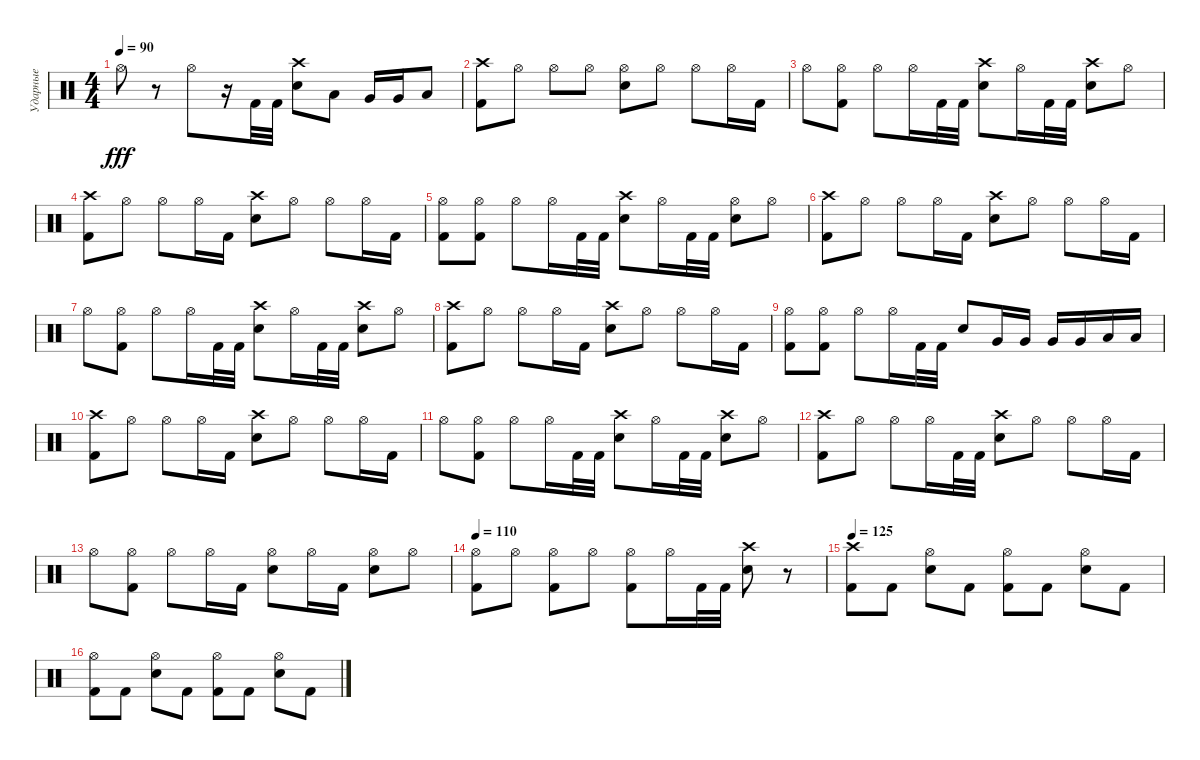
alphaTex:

\track ("Ударные" "Ударные") {instrument percussion}
\staff {score}
\articulation defaults
\ts (4 4)
\tempo 90
\clef neutral
\ks c "Hi-Hat (open)".8{dy fff}
r.8 "Hi-Hat (open)".8 r.16 "Kick (hit) 2".32 "Kick (hit) 2".32 ("Crash high (hit)" "Electric Snare (hit)").8 "Low Tom (hit)".8 "Very Low Tom (hit)".16 "Very Low Tom (hit)".16 "Low Floor Tom (hit)".8 |
("Crash high (hit)" "Kick (hit) 2").8 "Hi-Hat (open)".8 "Hi-Hat (open)".8 "Hi-Hat (open)".8 ("Hi-Hat (open)" "Electric Snare (hit)").8 "Hi-Hat (open)".8 "Hi-Hat (open)".8 "Hi-Hat (open)".16 "Kick (hit) 2".16 |
"Hi-Hat (open)".8 ("Hi-Hat (open)" "Kick (hit) 2").8 "Hi-Hat (open)".8 "Hi-Hat (open)".16 "Kick (hit) 2".32 "Kick (hit) 2".32 ("Crash high (hit)" "Electric Snare (hit)").8 "Hi-Hat (open)".16 "Kick (hit) 2".32 "Kick (hit) 2".32 ("Crash high (hit)" "Electric Snare (hit)").8 "Hi-Hat (open)".8 |
("Crash high (hit)" "Kick (hit) 2").8 "Hi-Hat (open)".8 "Hi-Hat (open)".8 "Hi-Hat (open)".16 "Kick (hit) 2".16 ("Crash high (hit)" "Electric Snare (hit)").8 "Hi-Hat (open)".8 "Hi-Hat (open)".8 "Hi-Hat (open)".16 "Kick (hit) 2".16 |
("Hi-Hat (open)" "Kick (hit) 2").8 ("Hi-Hat (open)" "Kick (hit) 2").8 "Hi-Hat (open)".8 "Hi-Hat (open)".16 "Kick (hit) 2".32 "Kick (hit) 2".32 ("Crash high (hit)" "Electric Snare (hit)").8 "Hi-Hat (open)".16 "Kick (hit) 2".32 "Kick (hit) 2".32 ("Hi-Hat (open)" "Electric Snare (hit)").8 "Hi-Hat (open)".8 |
("Crash high (hit)" "Kick (hit) 2").8 "Hi-Hat (open)".8 "Hi-Hat (open)".8 "Hi-Hat (open)".16 "Kick (hit) 2".16 ("Crash high (hit)" "Electric Snare (hit)").8 "Hi-Hat (open)".8 "Hi-Hat (open)".8 "Hi-Hat (open)".16 "Kick (hit) 2".16 |
"Hi-Hat (open)".8 ("Hi-Hat (open)" "Kick (hit) 2").8 "Hi-Hat (open)".8 "Hi-Hat (open)".16 "Kick (hit) 2".32 "Kick (hit) 2".32 ("Crash high (hit)" "Electric Snare (hit)").8 "Hi-Hat (open)".16 "Kick (hit) 2".32 "Kick (hit) 2".32 ("Crash high (hit)" "Electric Snare (hit)").8 "Hi-Hat (open)".8 |
("Crash high (hit)" "Kick (hit) 2").8 "Hi-Hat (open)".8 "Hi-Hat (open)".8 "Hi-Hat (open)".16 "Kick (hit) 2".16 ("Crash high (hit)" "Electric Snare (hit)").8 "Hi-Hat (open)".8 "Hi-Hat (open)".8 "Hi-Hat (open)".16 "Kick (hit) 2".16 |
("Hi-Hat (open)" "Kick (hit) 2").8 ("Hi-Hat (open)" "Kick (hit) 2").8 "Hi-Hat (open)".8 "Hi-Hat (open)".16 "Kick (hit) 2".32 "Kick (hit) 2".32 "Electric Snare (hit)".8 "Very Low Tom (hit)".16 "Very Low Tom (hit)".16 "Very Low Tom (hit)".16 "Very Low Tom (hit)".16 "Low Floor Tom (hit)".16 "Low Floor Tom (hit)".16 |
("Crash high (hit)" "Kick (hit) 2").8 "Hi-Hat (open)".8 "Hi-Hat (open)".8 "Hi-Hat (open)".16 "Kick (hit) 2".16 ("Crash high (hit)" "Electric Snare (hit)").8 "Hi-Hat (open)".8 "Hi-Hat (open)".8 "Hi-Hat (open)".16 "Kick (hit) 2".16 |
"Hi-Hat (open)".8 ("Hi-Hat (open)" "Kick (hit) 2").8 "Hi-Hat (open)".8 "Hi-Hat (open)".16 "Kick (hit) 2".32 "Kick (hit) 2".32 ("Crash high (hit)" "Electric Snare (hit)").8 "Hi-Hat (open)".16 "Kick (hit) 2".32 "Kick (hit) 2".32 ("Crash high (hit)" "Electric Snare (hit)").8 "Hi-Hat (open)".8 |
("Crash high (hit)" "Kick (hit) 2").8 "Hi-Hat (open)".8 "Hi-Hat (open)".8 "Hi-Hat (open)".16 "Kick (hit) 2".32 "Kick (hit) 2".32 ("Crash high (hit)" "Electric Snare (hit)").8 "Hi-Hat (open)".8 "Hi-Hat (open)".8 "Hi-Hat (open)".16 "Kick (hit) 2".16 |
"Hi-Hat (open)".8 ("Hi-Hat (open)" "Kick (hit) 2").8 "Hi-Hat (open)".8 "Hi-Hat (open)".16 "Kick (hit) 2".16 ("Hi-Hat (open)" "Electric Snare (hit)").8 "Hi-Hat (open)".16 "Kick (hit) 2".16 ("Hi-Hat (open)" "Electric Snare (hit)").8 "Hi-Hat (open)".8 |
\tempo 110
("Hi-Hat (open)" "Kick (hit) 2").8 "Hi-Hat (open)".8 ("Hi-Hat (open)" "Kick (hit) 2").8 "Hi-Hat (open)".8 ("Hi-Hat (open)" "Kick (hit) 2").8 "Hi-Hat (open)".16 "Kick (hit) 2".32 "Kick (hit) 2".32 ("Crash high (hit)" "Electric Snare (hit)").8 r.8 |
\tempo 125
("Crash high (hit)" "Kick (hit) 2").8 "Kick (hit) 2".8 ("Hi-Hat (open)" "Electric Snare (hit)").8 "Kick (hit) 2".8 ("Hi-Hat (open)" "Kick (hit) 2").8 "Kick (hit) 2".8 ("Hi-Hat (open)" "Electric Snare (hit)").8 "Kick (hit) 2".8 |
("Hi-Hat (open)" "Kick (hit) 2").8 "Kick (hit) 2".8 ("Hi-Hat (open)" "Electric Snare (hit)").8 "Kick (hit) 2".8 ("Hi-Hat (open)" "Kick (hit) 2").8 "Kick (hit) 2".8 ("Hi-Hat (open)" "Electric Snare (hit)").8 "Kick (hit) 2".8
